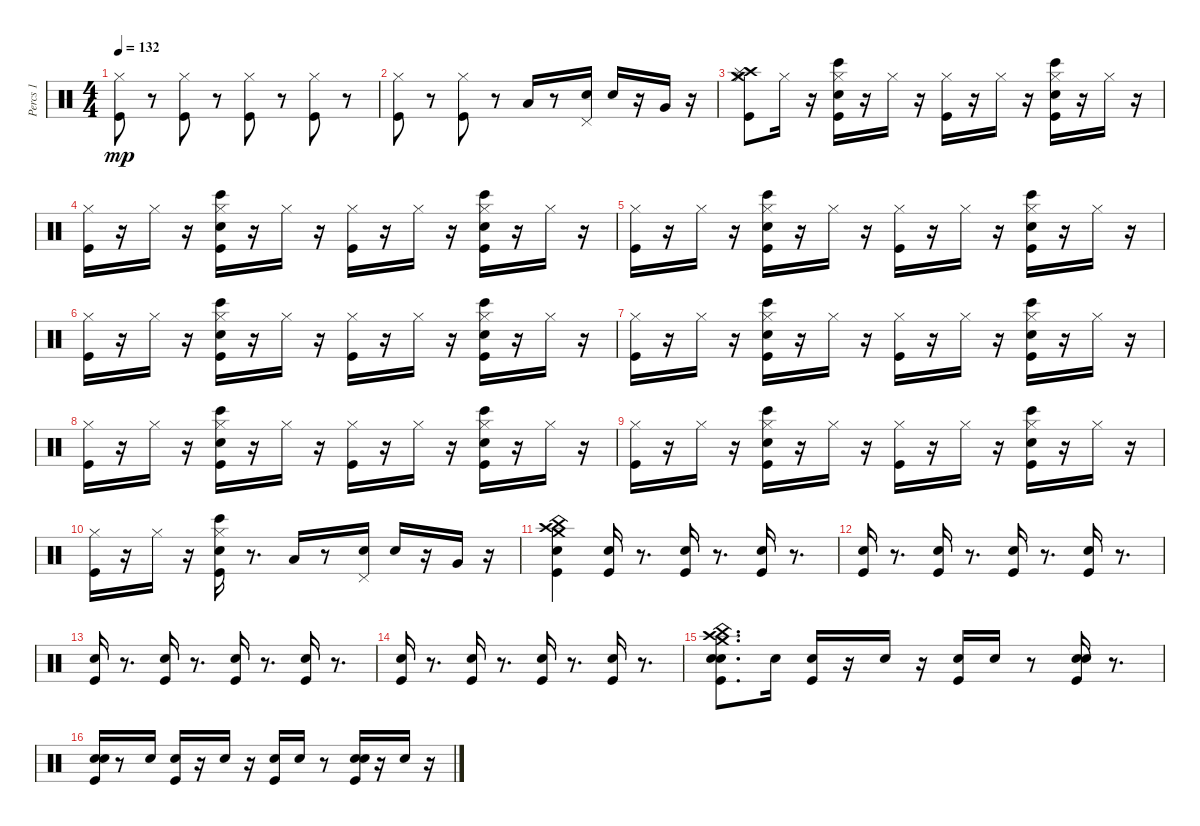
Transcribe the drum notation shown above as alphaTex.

\track ("Percs 1" "Percs 1") {instrument percussion}
\staff {score}
\articulation defaults
\ts (4 4)
\tempo 132
\clef neutral
\ks c
("Kick (hit)" "Hi-Hat (closed)").8{dy mp} r.8 ("Kick (hit)" "Hi-Hat (closed)").8 r.8 ("Kick (hit)" "Hi-Hat (closed)").8 r.8 ("Kick (hit)" "Hi-Hat (closed)").8 r.8 |
("Kick (hit)" "Hi-Hat (closed)").8 r.8 ("Kick (hit)" "Hi-Hat (closed)").8 r.8 "Low Floor Tom (hit)".16 r.8 ("Snare (hit) 2" "Pedal Hi-Hat (hit)").16 "Snare (hit) 2".16 r.16 "Very Low Tom (hit)".16 r.16 |
("Hi-Hat (closed)" "Kick (hit)" "Crash high (hit)" "Crash medium (hit)" "Splash (hit)").8 "Hi-Hat (closed)".16 r.16 ("Hi-Hat (closed)" "Kick (hit)" "Electric Snare (hit)" "Bongo High (hit)").16 r.16 "Hi-Hat (closed)".16 r.16 ("Hi-Hat (closed)" "Kick (hit)").16 r.16 "Hi-Hat (closed)".16 r.16 ("Electric Snare (hit)" "Kick (hit)" "Bongo High (hit)" "Hi-Hat (closed)").16 r.16 "Hi-Hat (closed)".16 r.16 |
("Hi-Hat (closed)" "Kick (hit)").16 r.16 "Hi-Hat (closed)".16 r.16 ("Hi-Hat (closed)" "Bongo High (hit)" "Kick (hit)" "Electric Snare (hit)").16 r.16 "Hi-Hat (closed)".16 r.16 ("Kick (hit)" "Hi-Hat (closed)").16 r.16 "Hi-Hat (closed)".16 r.16 ("Electric Snare (hit)" "Kick (hit)" "Bongo High (hit)" "Hi-Hat (closed)").16 r.16 "Hi-Hat (closed)".16 r.16 |
("Kick (hit)" "Hi-Hat (closed)").16 r.16 "Hi-Hat (closed)".16 r.16 ("Hi-Hat (closed)" "Kick (hit)" "Electric Snare (hit)" "Bongo High (hit)").16 r.16 "Hi-Hat (closed)".16 r.16 ("Hi-Hat (closed)" "Kick (hit)").16 r.16 "Hi-Hat (closed)".16 r.16 ("Electric Snare (hit)" "Kick (hit)" "Bongo High (hit)" "Hi-Hat (closed)").16 r.16 "Hi-Hat (closed)".16 r.16 |
("Kick (hit)" "Hi-Hat (closed)").16 r.16 "Hi-Hat (closed)".16 r.16 ("Hi-Hat (closed)" "Bongo High (hit)" "Kick (hit)" "Electric Snare (hit)").16 r.16 "Hi-Hat (closed)".16 r.16 ("Kick (hit)" "Hi-Hat (closed)").16 r.16 "Hi-Hat (closed)".16 r.16 ("Electric Snare (hit)" "Kick (hit)" "Bongo High (hit)" "Hi-Hat (closed)").16 r.16 "Hi-Hat (closed)".16 r.16 |
("Kick (hit)" "Hi-Hat (closed)").16 r.16 "Hi-Hat (closed)".16 r.16 ("Hi-Hat (closed)" "Kick (hit)" "Electric Snare (hit)" "Bongo High (hit)").16 r.16 "Hi-Hat (closed)".16 r.16 ("Hi-Hat (closed)" "Kick (hit)").16 r.16 "Hi-Hat (closed)".16 r.16 ("Electric Snare (hit)" "Kick (hit)" "Bongo High (hit)" "Hi-Hat (closed)").16 r.16 "Hi-Hat (closed)".16 r.16 |
("Kick (hit)" "Hi-Hat (closed)").16 r.16 "Hi-Hat (closed)".16 r.16 ("Hi-Hat (closed)" "Bongo High (hit)" "Kick (hit)" "Electric Snare (hit)").16 r.16 "Hi-Hat (closed)".16 r.16 ("Kick (hit)" "Hi-Hat (closed)").16 r.16 "Hi-Hat (closed)".16 r.16 ("Electric Snare (hit)" "Kick (hit)" "Bongo High (hit)" "Hi-Hat (closed)").16 r.16 "Hi-Hat (closed)".16 r.16 |
("Kick (hit)" "Hi-Hat (closed)").16 r.16 "Hi-Hat (closed)".16 r.16 ("Hi-Hat (closed)" "Kick (hit)" "Electric Snare (hit)" "Bongo High (hit)").16 r.16 "Hi-Hat (closed)".16 r.16 ("Hi-Hat (closed)" "Kick (hit)").16 r.16 "Hi-Hat (closed)".16 r.16 ("Electric Snare (hit)" "Kick (hit)" "Bongo High (hit)" "Hi-Hat (closed)").16 r.16 "Hi-Hat (closed)".16 r.16 |
("Kick (hit)" "Hi-Hat (closed)").16 r.16 "Hi-Hat (closed)".16 r.16 ("Electric Snare (hit)" "Kick (hit)" "Bongo High (hit)" "Hi-Hat (closed)").16 r.8{d} "Low Floor Tom (hit)".16 r.8 ("Snare (hit) 2" "Pedal Hi-Hat (hit)").16 "Snare (hit) 2".16 r.16 "Very Low Tom (hit)".16 r.16 |
("Hand Clap (hit)" "Kick (hit)" "Crash high (hit)" "China (hit)" "Crash medium (hit)").4 ("Hand Clap (hit)" "Kick (hit)").16 r.8{d} ("Kick (hit)" "Hand Clap (hit)").16 r.8{d} ("Hand Clap (hit)" "Kick (hit)").16 r.8{d} |
("Hand Clap (hit)" "Kick (hit)").16 r.8{d} ("Hand Clap (hit)" "Kick (hit)").16 r.8{d} ("Kick (hit)" "Hand Clap (hit)").16 r.8{d} ("Hand Clap (hit)" "Kick (hit)").16 r.8{d} |
("Kick (hit)" "Hand Clap (hit)").16 r.8{d} ("Hand Clap (hit)" "Kick (hit)").16 r.8{d} ("Kick (hit)" "Hand Clap (hit)").16 r.8{d} ("Hand Clap (hit)" "Kick (hit)").16 r.8{d} |
("Hand Clap (hit)" "Kick (hit)").16 r.8{d} ("Hand Clap (hit)" "Kick (hit)").16 r.8{d} ("Hand Clap (hit)" "Kick (hit)").16 r.8{d} ("Hand Clap (hit)" "Kick (hit)").16 r.8{d} |
("Hand Clap (hit)" "Kick (hit)" "Electric Snare (hit)" "Crash high (hit)" "China (hit)" "Crash medium (hit)").8{d} "Electric Snare (hit)".16 ("Kick (hit)" "Hand Clap (hit)").16 r.16 "Electric Snare (hit)".16 r.16 ("Kick (hit)" "Hand Clap (hit)").16 "Electric Snare (hit)".16 r.8 ("Hand Clap (hit)" "Kick (hit)" "Electric Snare (hit)").16 r.8{d} |
("Hand Clap (hit)" "Kick (hit)" "Electric Snare (hit)").16 r.8 "Electric Snare (hit)".16 ("Kick (hit)" "Hand Clap (hit)").16 r.16 "Electric Snare (hit)".16 r.16 ("Kick (hit)" "Hand Clap (hit)").16 "Electric Snare (hit)".16 r.8 ("Hand Clap (hit)" "Kick (hit)" "Electric Snare (hit)").16 r.16 "Electric Snare (hit)".16 r.16
